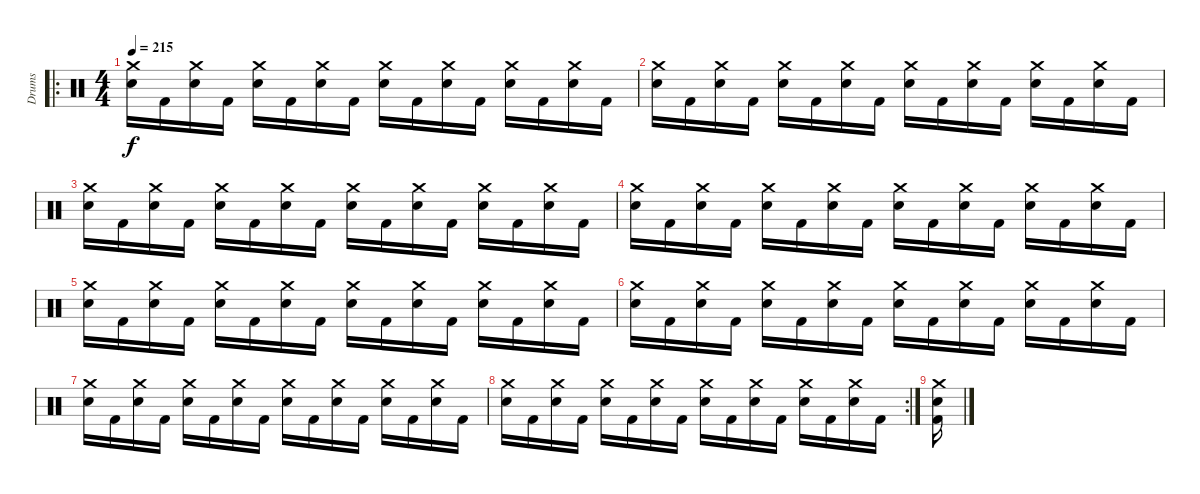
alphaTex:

\track ("Drums" "Drums") {instrument percussion}
\staff {score}
\articulation defaults
\ro
\ts (4 4)
\tempo 215
\clef neutral
\ks c
("Crash medium (hit)" "Electric Snare (hit)").16{dy f} "Kick (hit) 2".16 ("Crash medium (hit)" "Electric Snare (hit)").16 "Kick (hit) 2".16 ("Crash medium (hit)" "Electric Snare (hit)").16 "Kick (hit) 2".16 ("Crash medium (hit)" "Electric Snare (hit)").16 "Kick (hit) 2".16 ("Crash medium (hit)" "Electric Snare (hit)").16 "Kick (hit) 2".16 ("Crash medium (hit)" "Electric Snare (hit)").16 "Kick (hit) 2".16 ("Crash medium (hit)" "Electric Snare (hit)").16 "Kick (hit) 2".16 ("Crash medium (hit)" "Electric Snare (hit)").16 "Kick (hit) 2".16 |
("Crash medium (hit)" "Electric Snare (hit)").16 "Kick (hit) 2".16 ("Crash medium (hit)" "Electric Snare (hit)").16 "Kick (hit) 2".16 ("Crash medium (hit)" "Electric Snare (hit)").16 "Kick (hit) 2".16 ("Crash medium (hit)" "Electric Snare (hit)").16 "Kick (hit) 2".16 ("Crash medium (hit)" "Electric Snare (hit)").16 "Kick (hit) 2".16 ("Crash medium (hit)" "Electric Snare (hit)").16 "Kick (hit) 2".16 ("Crash medium (hit)" "Electric Snare (hit)").16 "Kick (hit) 2".16 ("Crash medium (hit)" "Electric Snare (hit)").16 "Kick (hit) 2".16 |
("Crash medium (hit)" "Electric Snare (hit)").16 "Kick (hit) 2".16 ("Crash medium (hit)" "Electric Snare (hit)").16 "Kick (hit) 2".16 ("Crash medium (hit)" "Electric Snare (hit)").16 "Kick (hit) 2".16 ("Crash medium (hit)" "Electric Snare (hit)").16 "Kick (hit) 2".16 ("Crash medium (hit)" "Electric Snare (hit)").16 "Kick (hit) 2".16 ("Crash medium (hit)" "Electric Snare (hit)").16 "Kick (hit) 2".16 ("Crash medium (hit)" "Electric Snare (hit)").16 "Kick (hit) 2".16 ("Crash medium (hit)" "Electric Snare (hit)").16 "Kick (hit) 2".16 |
("Crash medium (hit)" "Electric Snare (hit)").16 "Kick (hit) 2".16 ("Crash medium (hit)" "Electric Snare (hit)").16 "Kick (hit) 2".16 ("Crash medium (hit)" "Electric Snare (hit)").16 "Kick (hit) 2".16 ("Crash medium (hit)" "Electric Snare (hit)").16 "Kick (hit) 2".16 ("Crash medium (hit)" "Electric Snare (hit)").16 "Kick (hit) 2".16 ("Crash medium (hit)" "Electric Snare (hit)").16 "Kick (hit) 2".16 ("Crash medium (hit)" "Electric Snare (hit)").16 "Kick (hit) 2".16 ("Crash medium (hit)" "Electric Snare (hit)").16 "Kick (hit) 2".16 |
("Crash medium (hit)" "Electric Snare (hit)").16 "Kick (hit) 2".16 ("Crash medium (hit)" "Electric Snare (hit)").16 "Kick (hit) 2".16 ("Crash medium (hit)" "Electric Snare (hit)").16 "Kick (hit) 2".16 ("Crash medium (hit)" "Electric Snare (hit)").16 "Kick (hit) 2".16 ("Crash medium (hit)" "Electric Snare (hit)").16 "Kick (hit) 2".16 ("Crash medium (hit)" "Electric Snare (hit)").16 "Kick (hit) 2".16 ("Crash medium (hit)" "Electric Snare (hit)").16 "Kick (hit) 2".16 ("Crash medium (hit)" "Electric Snare (hit)").16 "Kick (hit) 2".16 |
("Crash medium (hit)" "Electric Snare (hit)").16 "Kick (hit) 2".16 ("Crash medium (hit)" "Electric Snare (hit)").16 "Kick (hit) 2".16 ("Crash medium (hit)" "Electric Snare (hit)").16 "Kick (hit) 2".16 ("Crash medium (hit)" "Electric Snare (hit)").16 "Kick (hit) 2".16 ("Crash medium (hit)" "Electric Snare (hit)").16 "Kick (hit) 2".16 ("Crash medium (hit)" "Electric Snare (hit)").16 "Kick (hit) 2".16 ("Crash medium (hit)" "Electric Snare (hit)").16 "Kick (hit) 2".16 ("Crash medium (hit)" "Electric Snare (hit)").16 "Kick (hit) 2".16 |
("Crash medium (hit)" "Electric Snare (hit)").16 "Kick (hit) 2".16 ("Crash medium (hit)" "Electric Snare (hit)").16 "Kick (hit) 2".16 ("Crash medium (hit)" "Electric Snare (hit)").16 "Kick (hit) 2".16 ("Crash medium (hit)" "Electric Snare (hit)").16 "Kick (hit) 2".16 ("Crash medium (hit)" "Electric Snare (hit)").16 "Kick (hit) 2".16 ("Crash medium (hit)" "Electric Snare (hit)").16 "Kick (hit) 2".16 ("Crash medium (hit)" "Electric Snare (hit)").16 "Kick (hit) 2".16 ("Crash medium (hit)" "Electric Snare (hit)").16 "Kick (hit) 2".16 |
\rc 2
("Crash medium (hit)" "Electric Snare (hit)").16 "Kick (hit) 2".16 ("Crash medium (hit)" "Electric Snare (hit)").16 "Kick (hit) 2".16 ("Crash medium (hit)" "Electric Snare (hit)").16 "Kick (hit) 2".16 ("Crash medium (hit)" "Electric Snare (hit)").16 "Kick (hit) 2".16 ("Crash medium (hit)" "Electric Snare (hit)").16 "Kick (hit) 2".16 ("Crash medium (hit)" "Electric Snare (hit)").16 "Kick (hit) 2".16 ("Crash medium (hit)" "Electric Snare (hit)").16 "Kick (hit) 2".16 ("Crash medium (hit)" "Electric Snare (hit)").16 "Kick (hit) 2".16 |
("Crash medium (hit)" "Electric Snare (hit)" "Kick (hit) 2").16
